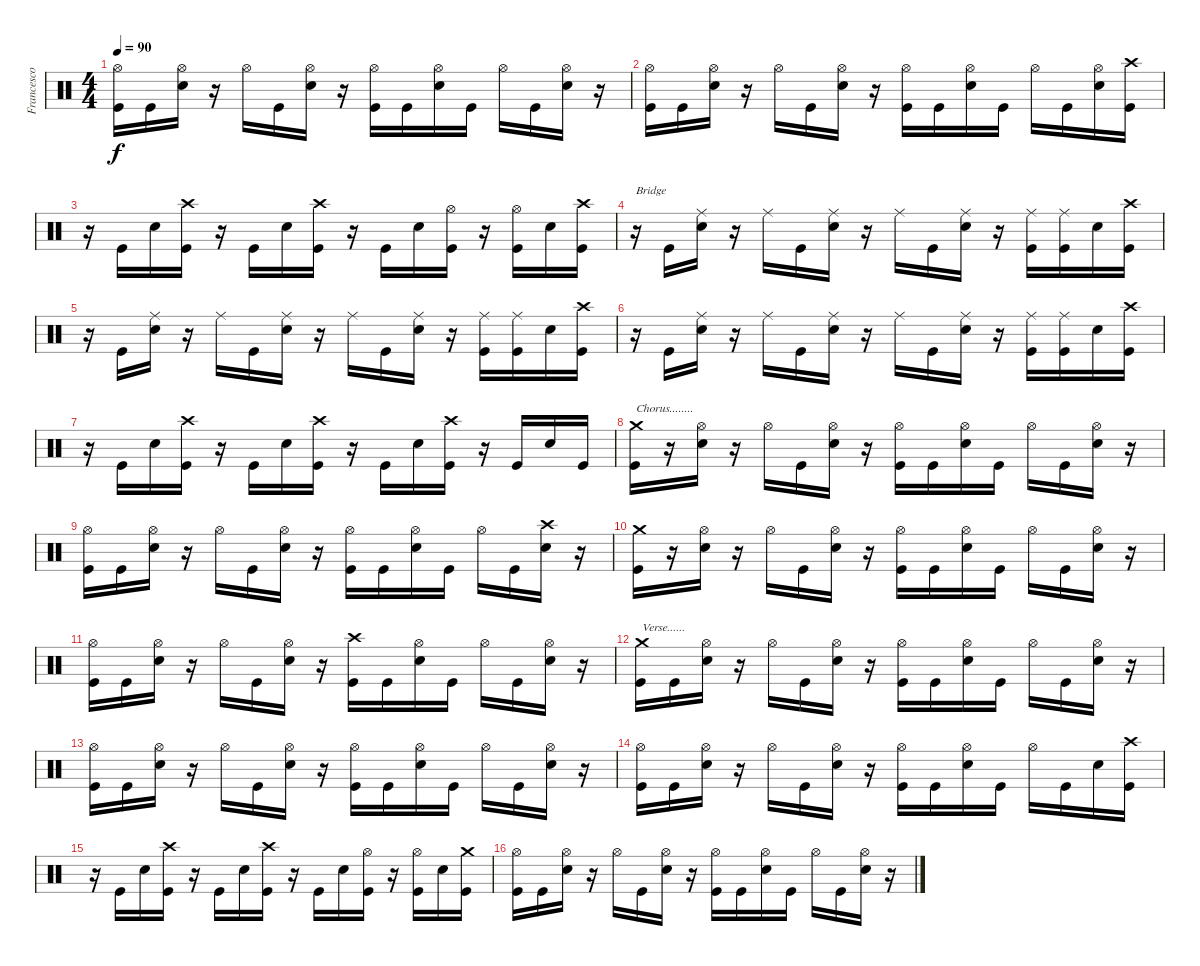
\track ("Francesco Jovino" "Francesco ") {instrument percussion}
\staff {score}
\articulation defaults
\ts (4 4)
\tempo 90
\clef neutral
\ks c
("Hi-Hat (open)" "Kick (hit)").16{dy f} "Kick (hit)".16 ("Snare (hit) 2" "Hi-Hat (open)").16 r.16 "Hi-Hat (open)".16 "Kick (hit)".16 ("Snare (hit) 2" "Hi-Hat (open)").16 r.16 ("Kick (hit)" "Hi-Hat (open)").16 "Kick (hit)".16 ("Snare (hit) 2" "Hi-Hat (open)").16 "Kick (hit)".16 "Hi-Hat (open)".16 "Kick (hit)".16 ("Snare (hit) 2" "Hi-Hat (open)").16 r.16 |
("Hi-Hat (open)" "Kick (hit)").16 "Kick (hit)".16 ("Snare (hit) 2" "Hi-Hat (open)").16 r.16 "Hi-Hat (open)".16 "Kick (hit)".16 ("Snare (hit) 2" "Hi-Hat (open)").16 r.16 ("Kick (hit)" "Hi-Hat (open)").16 "Kick (hit)".16 ("Snare (hit) 2" "Hi-Hat (open)").16 "Kick (hit)".16 "Hi-Hat (open)".16 "Kick (hit)".16 ("Snare (hit) 2" "Hi-Hat (open)").16 ("Kick (hit)" "Crash high (hit)").16 |
r.16 "Kick (hit)".16 "Snare (hit) 2".16 ("Crash high (hit)" "Kick (hit)").16 r.16 "Kick (hit)".16 "Snare (hit) 2".16 ("Crash high (hit)" "Kick (hit)").16 r.16 "Kick (hit)".16 "Snare (hit) 2".16 ("Kick (hit)" "Hi-Hat (open)").16 r.16 ("Kick (hit)" "Hi-Hat (open)").16 "Snare (hit) 2".16 ("Crash high (hit)" "Kick (hit)").16 |
r.16{txt "Bridge"} "Kick (hit)".16 ("Snare (hit) 2" "Ride (middle)").16 r.16 "Ride (middle)".16 "Kick (hit)".16 ("Snare (hit) 2" "Ride (middle)").16 r.16 "Ride (middle)".16 "Kick (hit)".16 ("Snare (hit) 2" "Ride (middle)").16 r.16 ("Kick (hit)" "Ride (middle)").16 ("Kick (hit)" "Ride (middle)").16 "Snare (hit) 2".16 ("Kick (hit)" "Crash high (hit)").16 |
r.16 "Kick (hit)".16 ("Snare (hit) 2" "Ride (middle)").16 r.16 "Ride (middle)".16 "Kick (hit)".16 ("Snare (hit) 2" "Ride (middle)").16 r.16 "Ride (middle)".16 "Kick (hit)".16 ("Snare (hit) 2" "Ride (middle)").16 r.16 ("Kick (hit)" "Ride (middle)").16 ("Kick (hit)" "Ride (middle)").16 "Snare (hit) 2".16 ("Kick (hit)" "Crash high (hit)").16 |
r.16 "Kick (hit)".16 ("Snare (hit) 2" "Ride (middle)").16 r.16 "Ride (middle)".16 "Kick (hit)".16 ("Snare (hit) 2" "Ride (middle)").16 r.16 "Ride (middle)".16 "Kick (hit)".16 ("Snare (hit) 2" "Ride (middle)").16 r.16 ("Kick (hit)" "Ride (middle)").16 ("Kick (hit)" "Ride (middle)").16 "Snare (hit) 2".16 ("Kick (hit)" "Crash high (hit)").16 |
r.16 "Kick (hit)".16 "Snare (hit) 2".16 ("Crash high (hit)" "Kick (hit)").16 r.16 "Kick (hit)".16 "Snare (hit) 2".16 ("Crash high (hit)" "Kick (hit)").16 r.16 "Kick (hit)".16 "Snare (hit) 2".16 ("Kick (hit)" "Crash high (hit)").16 r.16 "Kick (hit)".16 "Snare (hit) 2".16 "Kick (hit)".16 |
("Kick (hit)" "Crash medium (hit)").16{txt "Chorus........"} r.16 ("Snare (hit) 2" "Hi-Hat (open)").16 r.16 "Hi-Hat (open)".16 "Kick (hit)".16 ("Snare (hit) 2" "Hi-Hat (open)").16 r.16 ("Kick (hit)" "Hi-Hat (open)").16 "Kick (hit)".16 ("Snare (hit) 2" "Hi-Hat (open)").16 "Kick (hit)".16 "Hi-Hat (open)".16 "Kick (hit)".16 ("Snare (hit) 2" "Hi-Hat (open)").16 r.16 |
("Hi-Hat (open)" "Kick (hit)").16 "Kick (hit)".16 ("Snare (hit) 2" "Hi-Hat (open)").16 r.16 "Hi-Hat (open)".16 "Kick (hit)".16 ("Snare (hit) 2" "Hi-Hat (open)").16 r.16 ("Kick (hit)" "Hi-Hat (open)").16 "Kick (hit)".16 ("Snare (hit) 2" "Hi-Hat (open)").16 "Kick (hit)".16 "Hi-Hat (open)".16 "Kick (hit)".16 ("Snare (hit) 2" "Crash high (hit)").16 r.16 |
("Kick (hit)" "Crash medium (hit)").16 r.16 ("Snare (hit) 2" "Hi-Hat (open)").16 r.16 "Hi-Hat (open)".16 "Kick (hit)".16 ("Snare (hit) 2" "Hi-Hat (open)").16 r.16 ("Kick (hit)" "Hi-Hat (open)").16 "Kick (hit)".16 ("Snare (hit) 2" "Hi-Hat (open)").16 "Kick (hit)".16 "Hi-Hat (open)".16 "Kick (hit)".16 ("Snare (hit) 2" "Hi-Hat (open)").16 r.16 |
("Kick (hit)" "Hi-Hat (open)").16 "Kick (hit)".16 ("Snare (hit) 2" "Hi-Hat (open)").16 r.16 "Hi-Hat (open)".16 "Kick (hit)".16 ("Snare (hit) 2" "Hi-Hat (open)").16 r.16 ("Kick (hit)" "Crash high (hit)").16 "Kick (hit)".16 ("Snare (hit) 2" "Hi-Hat (open)").16 "Kick (hit)".16 "Hi-Hat (open)".16 "Kick (hit)".16 ("Snare (hit) 2" "Hi-Hat (open)").16 r.16 |
("Kick (hit)" "Crash medium (hit)").16{txt "Verse......"} "Kick (hit)".16 ("Snare (hit) 2" "Hi-Hat (open)").16 r.16 "Hi-Hat (open)".16 "Kick (hit)".16 ("Snare (hit) 2" "Hi-Hat (open)").16 r.16 ("Kick (hit)" "Hi-Hat (open)").16 "Kick (hit)".16 ("Snare (hit) 2" "Hi-Hat (open)").16 "Kick (hit)".16 "Hi-Hat (open)".16 "Kick (hit)".16 ("Snare (hit) 2" "Hi-Hat (open)").16 r.16 |
("Kick (hit)" "Hi-Hat (open)").16 "Kick (hit)".16 ("Snare (hit) 2" "Hi-Hat (open)").16 r.16 "Hi-Hat (open)".16 "Kick (hit)".16 ("Snare (hit) 2" "Hi-Hat (open)").16 r.16 ("Kick (hit)" "Hi-Hat (open)").16 "Kick (hit)".16 ("Snare (hit) 2" "Hi-Hat (open)").16 "Kick (hit)".16 "Hi-Hat (open)".16 "Kick (hit)".16 ("Snare (hit) 2" "Hi-Hat (open)").16 r.16 |
("Hi-Hat (open)" "Kick (hit)").16 "Kick (hit)".16 ("Snare (hit) 2" "Hi-Hat (open)").16 r.16 "Hi-Hat (open)".16 "Kick (hit)".16 ("Snare (hit) 2" "Hi-Hat (open)").16 r.16 ("Kick (hit)" "Hi-Hat (open)").16 "Kick (hit)".16 ("Snare (hit) 2" "Hi-Hat (open)").16 "Kick (hit)".16 "Hi-Hat (open)".16 "Kick (hit)".16 "Snare (hit) 2".16 ("Kick (hit)" "Crash high (hit)").16 |
r.16 "Kick (hit)".16 "Snare (hit) 2".16 ("Crash high (hit)" "Kick (hit)").16 r.16 "Kick (hit)".16 "Snare (hit) 2".16 ("Crash high (hit)" "Kick (hit)").16 r.16 "Kick (hit)".16 "Snare (hit) 2".16 ("Kick (hit)" "Hi-Hat (open)").16 r.16 ("Kick (hit)" "Hi-Hat (open)").16 "Snare (hit) 2".16 ("Kick (hit)" "Crash medium (hit)").16 |
("Hi-Hat (open)" "Kick (hit)").16 "Kick (hit)".16 ("Snare (hit) 2" "Hi-Hat (open)").16 r.16 "Hi-Hat (open)".16 "Kick (hit)".16 ("Snare (hit) 2" "Hi-Hat (open)").16 r.16 ("Kick (hit)" "Hi-Hat (open)").16 "Kick (hit)".16 ("Snare (hit) 2" "Hi-Hat (open)").16 "Kick (hit)".16 "Hi-Hat (open)".16 "Kick (hit)".16 ("Snare (hit) 2" "Hi-Hat (open)").16 r.16
